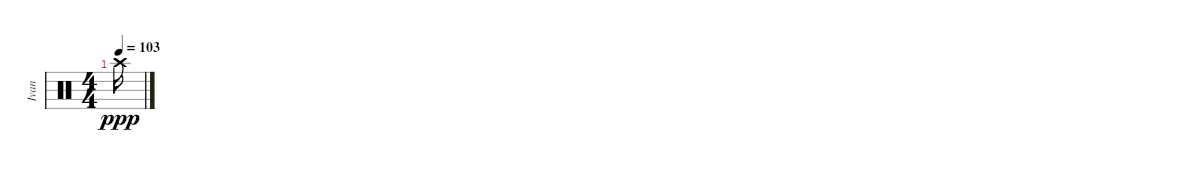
\track ("Ivan" "Ivan") {instrument percussion}
\staff {score}
\articulation defaults
\ts (4 4)
\tempo 103
\clef neutral
\ks c "Crash high (hit)".16{dy ppp}
